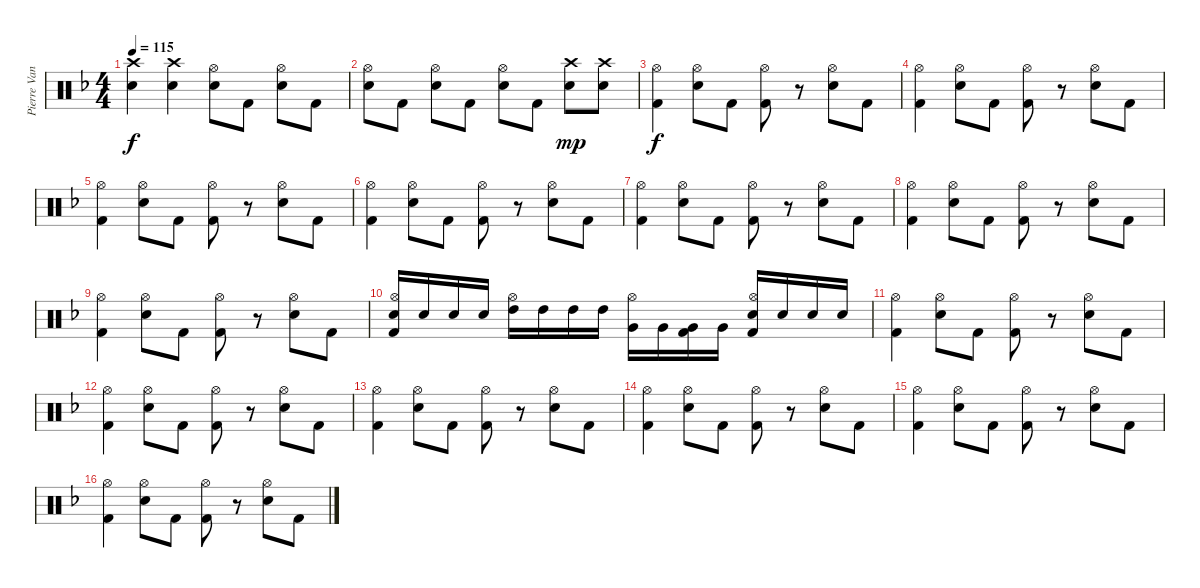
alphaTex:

\track ("Pierre Van Der Linden" "Pierre Van") {instrument percussion}
\staff {score}
\articulation defaults
\ts (4 4)
\tempo 115
\clef neutral
\ks f
("Crash high (hit)" "Electric Snare (hit)").4{dy f} ("Crash high (hit)" "Electric Snare (hit)").4 ("Hi-Hat (open)" "Electric Snare (hit)").8 "Kick (hit) 2".8 ("Hi-Hat (open)" "Electric Snare (hit)").8 "Kick (hit) 2".8 |
("Hi-Hat (open)" "Electric Snare (hit)").8 "Kick (hit) 2".8 ("Hi-Hat (open)" "Electric Snare (hit)").8 "Kick (hit) 2".8 ("Hi-Hat (open)" "Electric Snare (hit)").8 "Kick (hit) 2".8 ("Crash high (hit)" "Electric Snare (hit)").8{dy mp} ("Crash high (hit)" "Electric Snare (hit)").8 |
("Hi-Hat (open)" "Kick (hit) 2").4{dy f} ("Hi-Hat (open)" "Electric Snare (hit)").8 "Kick (hit) 2".8 ("Hi-Hat (open)" "Kick (hit) 2").8 r.8 ("Hi-Hat (open)" "Electric Snare (hit)").8 "Kick (hit) 2".8 |
("Hi-Hat (open)" "Kick (hit) 2").4 ("Hi-Hat (open)" "Electric Snare (hit)").8 "Kick (hit) 2".8 ("Hi-Hat (open)" "Kick (hit) 2").8 r.8 ("Hi-Hat (open)" "Electric Snare (hit)").8 "Kick (hit) 2".8 |
("Hi-Hat (open)" "Kick (hit) 2").4 ("Hi-Hat (open)" "Electric Snare (hit)").8 "Kick (hit) 2".8 ("Hi-Hat (open)" "Kick (hit) 2").8 r.8 ("Hi-Hat (open)" "Electric Snare (hit)").8 "Kick (hit) 2".8 |
("Hi-Hat (open)" "Kick (hit) 2").4 ("Hi-Hat (open)" "Electric Snare (hit)").8 "Kick (hit) 2".8 ("Hi-Hat (open)" "Kick (hit) 2").8 r.8 ("Hi-Hat (open)" "Electric Snare (hit)").8 "Kick (hit) 2".8 |
("Hi-Hat (open)" "Kick (hit) 2").4 ("Hi-Hat (open)" "Electric Snare (hit)").8 "Kick (hit) 2".8 ("Hi-Hat (open)" "Kick (hit) 2").8 r.8 ("Hi-Hat (open)" "Electric Snare (hit)").8 "Kick (hit) 2".8 |
("Hi-Hat (open)" "Kick (hit) 2").4 ("Hi-Hat (open)" "Electric Snare (hit)").8 "Kick (hit) 2".8 ("Hi-Hat (open)" "Kick (hit) 2").8 r.8 ("Hi-Hat (open)" "Electric Snare (hit)").8 "Kick (hit) 2".8 |
("Hi-Hat (open)" "Kick (hit) 2").4 ("Hi-Hat (open)" "Electric Snare (hit)").8 "Kick (hit) 2".8 ("Hi-Hat (open)" "Kick (hit) 2").8 r.8 ("Hi-Hat (open)" "Electric Snare (hit)").8 "Kick (hit) 2".8 |
("Hi-Hat (open)" "Electric Snare (hit)" "Kick (hit) 2").16 "Electric Snare (hit)".16 "Electric Snare (hit)".16 "Electric Snare (hit)".16 ("Hi-Hat (open)" "High Tom (hit)").16 "High Tom (hit)".16 "High Tom (hit)".16 "High Tom (hit)".16 ("Hi-Hat (open)" "Very Low Tom (hit)").16 "Very Low Tom (hit)".16 ("Very Low Tom (hit)" "Kick (hit) 2").16 "Very Low Tom (hit)".16 ("Hi-Hat (open)" "Electric Snare (hit)" "Kick (hit) 2").16 "Electric Snare (hit)".16 "Electric Snare (hit)".16 "Electric Snare (hit)".16 |
("Hi-Hat (open)" "Kick (hit) 2").4 ("Hi-Hat (open)" "Electric Snare (hit)").8 "Kick (hit) 2".8 ("Hi-Hat (open)" "Kick (hit) 2").8 r.8 ("Hi-Hat (open)" "Electric Snare (hit)").8 "Kick (hit) 2".8 |
("Hi-Hat (open)" "Kick (hit) 2").4 ("Hi-Hat (open)" "Electric Snare (hit)").8 "Kick (hit) 2".8 ("Hi-Hat (open)" "Kick (hit) 2").8 r.8 ("Hi-Hat (open)" "Electric Snare (hit)").8 "Kick (hit) 2".8 |
("Hi-Hat (open)" "Kick (hit) 2").4 ("Hi-Hat (open)" "Electric Snare (hit)").8 "Kick (hit) 2".8 ("Hi-Hat (open)" "Kick (hit) 2").8 r.8 ("Hi-Hat (open)" "Electric Snare (hit)").8 "Kick (hit) 2".8 |
("Hi-Hat (open)" "Kick (hit) 2").4 ("Hi-Hat (open)" "Electric Snare (hit)").8 "Kick (hit) 2".8 ("Hi-Hat (open)" "Kick (hit) 2").8 r.8 ("Hi-Hat (open)" "Electric Snare (hit)").8 "Kick (hit) 2".8 |
("Hi-Hat (open)" "Kick (hit) 2").4 ("Hi-Hat (open)" "Electric Snare (hit)").8 "Kick (hit) 2".8 ("Hi-Hat (open)" "Kick (hit) 2").8 r.8 ("Hi-Hat (open)" "Electric Snare (hit)").8 "Kick (hit) 2".8 |
("Hi-Hat (open)" "Kick (hit) 2").4 ("Hi-Hat (open)" "Electric Snare (hit)").8 "Kick (hit) 2".8 ("Hi-Hat (open)" "Kick (hit) 2").8 r.8 ("Hi-Hat (open)" "Electric Snare (hit)").8 "Kick (hit) 2".8
